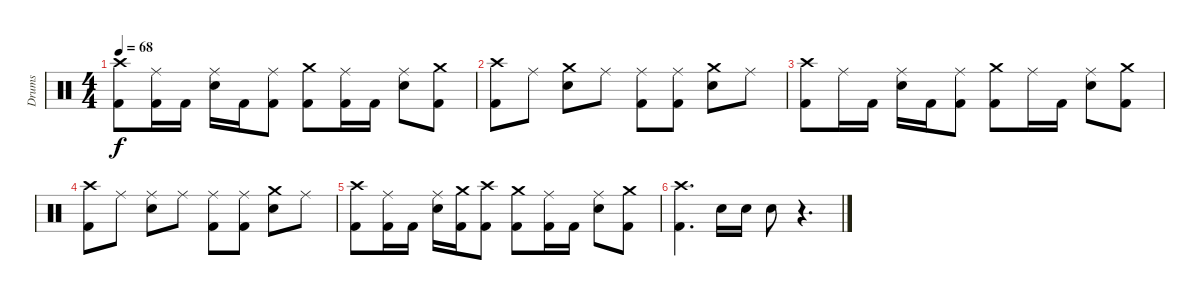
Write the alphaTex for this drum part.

\track ("Drums" "Drums") {instrument percussion}
\staff {score}
\articulation defaults
\ts (4 4)
\tempo 68
\clef neutral
\ks c
("Crash high (hit)" "Kick (hit) 2").8{dy f} ("Ride (middle)" "Kick (hit) 2").16 "Kick (hit) 2".16 ("Ride (middle)" "Snare (hit) 2").16 "Kick (hit) 2".16 ("Ride (middle)" "Kick (hit) 2").8 ("Crash medium (hit)" "Kick (hit) 2").8 ("Ride (middle)" "Kick (hit) 2").16 "Kick (hit) 2".16 ("Ride (middle)" "Snare (hit) 2").8 ("Crash medium (hit)" "Kick (hit) 2").8 |
("Crash high (hit)" "Kick (hit) 2").8 "Ride (middle)".8 ("Crash medium (hit)" "Snare (hit) 2").8 "Ride (middle)".8 ("Ride (middle)" "Kick (hit) 2").8 ("Ride (middle)" "Kick (hit) 2").8 ("Crash medium (hit)" "Snare (hit) 2").8 "Ride (middle)".8 |
("Crash high (hit)" "Kick (hit) 2").8 "Ride (middle)".16 "Kick (hit) 2".16 ("Ride (middle)" "Snare (hit) 2").16 "Kick (hit) 2".16 ("Ride (middle)" "Kick (hit) 2").8 ("Crash medium (hit)" "Kick (hit) 2").8 "Ride (middle)".16 "Kick (hit) 2".16 ("Ride (middle)" "Snare (hit) 2").8 ("Crash medium (hit)" "Kick (hit) 2").8 |
("Crash high (hit)" "Kick (hit) 2").8 "Ride (middle)".8 ("Ride (middle)" "Snare (hit) 2").8 "Ride (middle)".8 ("Ride (middle)" "Kick (hit) 2").8 ("Ride (middle)" "Kick (hit) 2").8 ("Crash medium (hit)" "Snare (hit) 2").8 "Ride (middle)".8 |
("Crash high (hit)" "Kick (hit) 2").8 ("Ride (middle)" "Kick (hit) 2").16 "Kick (hit) 2".16 ("Ride (middle)" "Snare (hit) 2").16 ("Crash medium (hit)" "Kick (hit) 2").16 ("Crash high (hit)" "Kick (hit) 2").8 ("Crash medium (hit)" "Kick (hit) 2").8 ("Ride (middle)" "Kick (hit) 2").16 "Kick (hit) 2".16 ("Ride (middle)" "Snare (hit) 2").8 ("Crash medium (hit)" "Kick (hit) 2").8 |
("Crash high (hit)" "Kick (hit) 2").4{d} "Snare (hit) 2".16 "Snare (hit) 2".16 "Snare (hit) 2".8 r.4{d}
